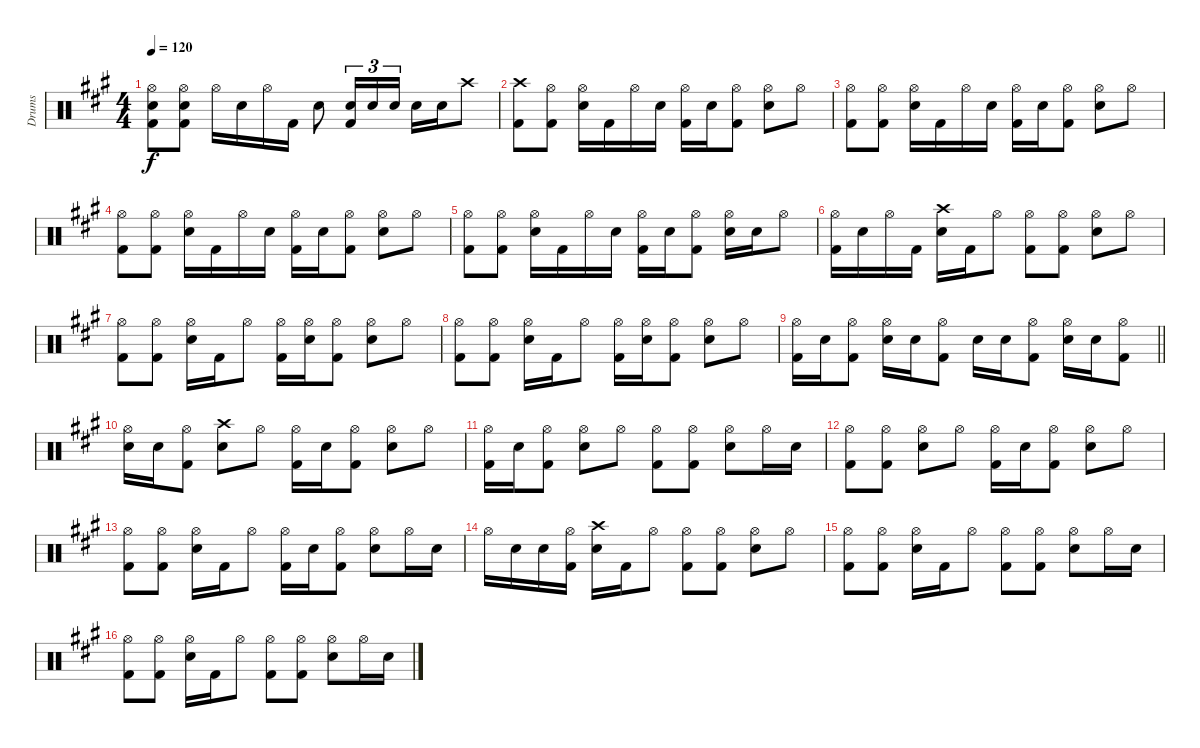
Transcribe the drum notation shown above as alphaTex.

\track ("Drums" "Drums") {instrument percussion}
\staff {score}
\articulation defaults
\ts (4 4)
\tempo 120
\clef neutral
\ks a
("Hi-Hat (open)" "Electric Snare (hit)" "Kick (hit) 2").8{dy f} ("Hi-Hat (open)" "Electric Snare (hit)" "Kick (hit) 2").8 "Hi-Hat (open)".16 "Electric Snare (hit)".16 "Hi-Hat (open)".16 "Kick (hit) 2".16 "Electric Snare (hit)".8 ("Electric Snare (hit)" "Kick (hit) 2").16{tu (3 2)} "Electric Snare (hit)".16{tu (3 2)} "Electric Snare (hit)".16{tu (3 2)} "Electric Snare (hit)".16 "Electric Snare (hit)".16 "Crash high (hit)".8 |
("Crash high (hit)" "Kick (hit) 2").8 ("Hi-Hat (open)" "Kick (hit) 2").8 ("Hi-Hat (open)" "Electric Snare (hit)").16 "Kick (hit) 2".16 "Hi-Hat (open)".16 "Electric Snare (hit)".16 ("Hi-Hat (open)" "Kick (hit) 2").16 "Electric Snare (hit)".16 ("Hi-Hat (open)" "Kick (hit) 2").8 ("Hi-Hat (open)" "Electric Snare (hit)").8 "Hi-Hat (open)".8 |
("Hi-Hat (open)" "Kick (hit) 2").8 ("Hi-Hat (open)" "Kick (hit) 2").8 ("Hi-Hat (open)" "Electric Snare (hit)").16 "Kick (hit) 2".16 "Hi-Hat (open)".16 "Electric Snare (hit)".16 ("Hi-Hat (open)" "Kick (hit) 2").16 "Electric Snare (hit)".16 ("Hi-Hat (open)" "Kick (hit) 2").8 ("Hi-Hat (open)" "Electric Snare (hit)").8 "Hi-Hat (open)".8 |
("Hi-Hat (open)" "Kick (hit) 2").8 ("Hi-Hat (open)" "Kick (hit) 2").8 ("Hi-Hat (open)" "Electric Snare (hit)").16 "Kick (hit) 2".16 "Hi-Hat (open)".16 "Electric Snare (hit)".16 ("Hi-Hat (open)" "Kick (hit) 2").16 "Electric Snare (hit)".16 ("Hi-Hat (open)" "Kick (hit) 2").8 ("Hi-Hat (open)" "Electric Snare (hit)").8 "Hi-Hat (open)".8 |
("Hi-Hat (open)" "Kick (hit) 2").8 ("Hi-Hat (open)" "Kick (hit) 2").8 ("Hi-Hat (open)" "Electric Snare (hit)").16 "Kick (hit) 2".16 "Hi-Hat (open)".16 "Electric Snare (hit)".16 ("Hi-Hat (open)" "Kick (hit) 2").16 "Electric Snare (hit)".16 ("Hi-Hat (open)" "Kick (hit) 2").8 ("Hi-Hat (open)" "Electric Snare (hit)").16 "Electric Snare (hit)".16 "Hi-Hat (open)".8 |
("Hi-Hat (open)" "Kick (hit) 2").16 "Electric Snare (hit)".16 "Hi-Hat (open)".16 "Kick (hit) 2".16 ("Crash high (hit)" "Electric Snare (hit)").16 "Kick (hit) 2".16 "Hi-Hat (open)".8 ("Hi-Hat (open)" "Kick (hit) 2").8 ("Hi-Hat (open)" "Kick (hit) 2").8 ("Hi-Hat (open)" "Electric Snare (hit)").8 "Hi-Hat (open)".8 |
("Hi-Hat (open)" "Kick (hit) 2").8 ("Hi-Hat (open)" "Kick (hit) 2").8 ("Hi-Hat (open)" "Electric Snare (hit)").16 "Kick (hit) 2".16 "Hi-Hat (open)".8 ("Hi-Hat (open)" "Kick (hit) 2").16 ("Hi-Hat (open)" "Electric Snare (hit)").16 ("Hi-Hat (open)" "Kick (hit) 2").8 ("Hi-Hat (open)" "Electric Snare (hit)").8 "Hi-Hat (open)".8 |
("Hi-Hat (open)" "Kick (hit) 2").8 ("Hi-Hat (open)" "Kick (hit) 2").8 ("Hi-Hat (open)" "Electric Snare (hit)").16 "Kick (hit) 2".16 "Hi-Hat (open)".8 ("Hi-Hat (open)" "Kick (hit) 2").16 ("Hi-Hat (open)" "Electric Snare (hit)").16 ("Hi-Hat (open)" "Kick (hit) 2").8 ("Hi-Hat (open)" "Electric Snare (hit)").8 "Hi-Hat (open)".8 |
\barLineRight lightlight
("Hi-Hat (open)" "Kick (hit) 2").16 "Electric Snare (hit)".16 ("Hi-Hat (open)" "Kick (hit) 2").8 ("Hi-Hat (open)" "Electric Snare (hit)").16 "Electric Snare (hit)".16 ("Hi-Hat (open)" "Kick (hit) 2").8 "Electric Snare (hit)".16 "Electric Snare (hit)".16 ("Hi-Hat (open)" "Kick (hit) 2").8 ("Hi-Hat (open)" "Electric Snare (hit)").16 "Electric Snare (hit)".16 ("Hi-Hat (open)" "Kick (hit) 2").8 |
("Hi-Hat (open)" "Electric Snare (hit)").16 "Electric Snare (hit)".16 ("Hi-Hat (open)" "Kick (hit) 2").8 ("Crash high (hit)" "Electric Snare (hit)").8 "Hi-Hat (open)".8 ("Hi-Hat (open)" "Kick (hit) 2").16 "Electric Snare (hit)".16 ("Hi-Hat (open)" "Kick (hit) 2").8 ("Hi-Hat (open)" "Electric Snare (hit)").8 "Hi-Hat (open)".8 |
("Hi-Hat (open)" "Kick (hit) 2").16 "Electric Snare (hit)".16 ("Hi-Hat (open)" "Kick (hit) 2").8 ("Hi-Hat (open)" "Electric Snare (hit)").8 "Hi-Hat (open)".8 ("Hi-Hat (open)" "Kick (hit) 2").8 ("Hi-Hat (open)" "Kick (hit) 2").8 ("Hi-Hat (open)" "Electric Snare (hit)").8 "Hi-Hat (open)".16 "Electric Snare (hit)".16 |
("Hi-Hat (open)" "Kick (hit) 2").8 ("Hi-Hat (open)" "Kick (hit) 2").8 ("Hi-Hat (open)" "Electric Snare (hit)").8 "Hi-Hat (open)".8 ("Hi-Hat (open)" "Kick (hit) 2").16 "Electric Snare (hit)".16 ("Hi-Hat (open)" "Kick (hit) 2").8 ("Hi-Hat (open)" "Electric Snare (hit)").8 "Hi-Hat (open)".8 |
("Hi-Hat (open)" "Kick (hit) 2").8 ("Hi-Hat (open)" "Kick (hit) 2").8 ("Hi-Hat (open)" "Electric Snare (hit)").16 "Kick (hit) 2".16 "Hi-Hat (open)".8 ("Hi-Hat (open)" "Kick (hit) 2").16 "Electric Snare (hit)".16 ("Hi-Hat (open)" "Kick (hit) 2").8 ("Hi-Hat (open)" "Electric Snare (hit)").8 "Hi-Hat (open)".16 "Electric Snare (hit)".16 |
"Hi-Hat (open)".16 "Electric Snare (hit)".16 "Electric Snare (hit)".16 ("Hi-Hat (open)" "Kick (hit) 2").16 ("Crash high (hit)" "Electric Snare (hit)").16 "Kick (hit) 2".16 "Hi-Hat (open)".8 ("Hi-Hat (open)" "Kick (hit) 2").8 ("Hi-Hat (open)" "Kick (hit) 2").8 ("Hi-Hat (open)" "Electric Snare (hit)").8 "Hi-Hat (open)".8 |
("Hi-Hat (open)" "Kick (hit) 2").8 ("Hi-Hat (open)" "Kick (hit) 2").8 ("Hi-Hat (open)" "Electric Snare (hit)").16 "Kick (hit) 2".16 "Hi-Hat (open)".8 ("Hi-Hat (open)" "Kick (hit) 2").8 ("Hi-Hat (open)" "Kick (hit) 2").8 ("Hi-Hat (open)" "Electric Snare (hit)").8 "Hi-Hat (open)".16 "Electric Snare (hit)".16 |
("Hi-Hat (open)" "Kick (hit) 2").8 ("Hi-Hat (open)" "Kick (hit) 2").8 ("Hi-Hat (open)" "Electric Snare (hit)").16 "Kick (hit) 2".16 "Hi-Hat (open)".8 ("Hi-Hat (open)" "Kick (hit) 2").8 ("Hi-Hat (open)" "Kick (hit) 2").8 ("Hi-Hat (open)" "Electric Snare (hit)").8 "Hi-Hat (open)".16 "Electric Snare (hit)".16
